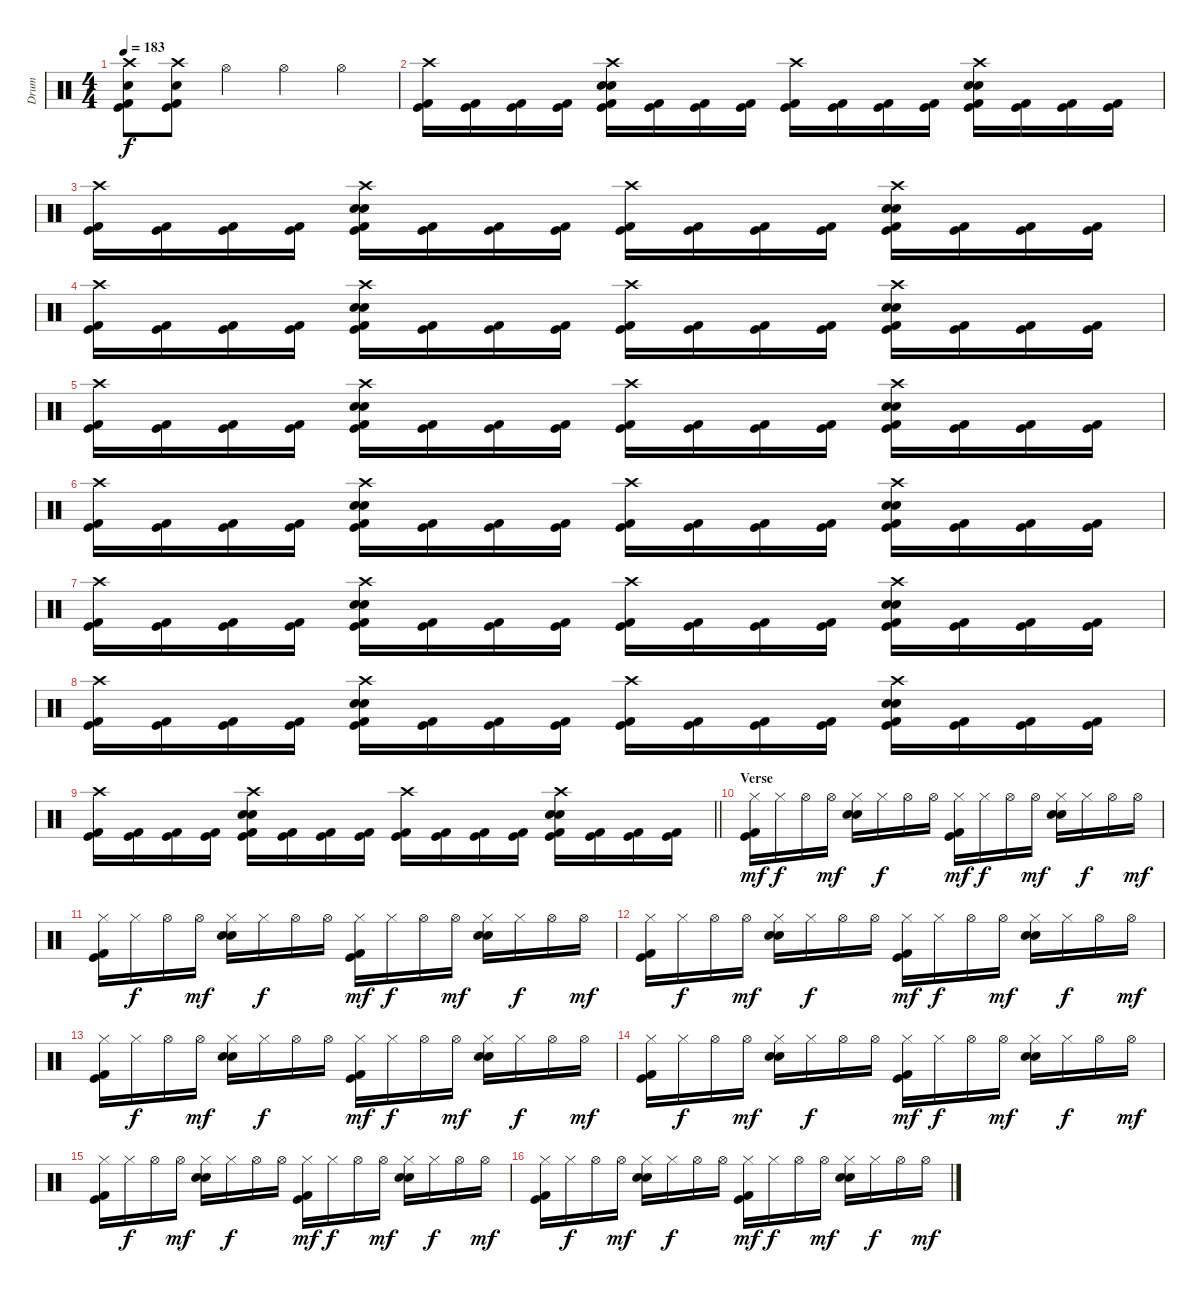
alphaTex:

\track ("Drum" "Drum") {instrument percussion}
\staff {score}
\articulation defaults
\ts (4 4)
\tempo 183
\clef neutral
\ks c
("Crash high (hit)" "Electric Snare (hit)" "Kick (hit) 2" "Kick (hit)").8{dy f} ("Crash high (hit)" "Electric Snare (hit)" "Kick (hit) 2" "Kick (hit)").8 "Hi-Hat (open)".4 "Hi-Hat (open)".4 "Hi-Hat (open)".4 |
("Crash high (hit)" "Kick (hit)" "Kick (hit) 2").16 ("Kick (hit)" "Kick (hit) 2").16 ("Kick (hit)" "Kick (hit) 2").16 ("Kick (hit)" "Kick (hit) 2").16 ("Crash high (hit)" "Electric Snare (hit)" "Electric Snare (hit)" "Kick (hit)" "Kick (hit) 2").16 ("Kick (hit)" "Kick (hit) 2").16 ("Kick (hit)" "Kick (hit) 2").16 ("Kick (hit)" "Kick (hit) 2").16 ("Crash high (hit)" "Kick (hit)" "Kick (hit) 2").16 ("Kick (hit)" "Kick (hit) 2").16 ("Kick (hit)" "Kick (hit) 2").16 ("Kick (hit)" "Kick (hit) 2").16 ("Crash high (hit)" "Electric Snare (hit)" "Electric Snare (hit)" "Kick (hit)" "Kick (hit) 2").16 ("Kick (hit)" "Kick (hit) 2").16 ("Kick (hit)" "Kick (hit) 2").16 ("Kick (hit)" "Kick (hit) 2").16 |
("Crash high (hit)" "Kick (hit)" "Kick (hit) 2").16 ("Kick (hit)" "Kick (hit) 2").16 ("Kick (hit)" "Kick (hit) 2").16 ("Kick (hit)" "Kick (hit) 2").16 ("Crash high (hit)" "Electric Snare (hit)" "Electric Snare (hit)" "Kick (hit)" "Kick (hit) 2").16 ("Kick (hit)" "Kick (hit) 2").16 ("Kick (hit)" "Kick (hit) 2").16 ("Kick (hit)" "Kick (hit) 2").16 ("Crash high (hit)" "Kick (hit)" "Kick (hit) 2").16 ("Kick (hit)" "Kick (hit) 2").16 ("Kick (hit)" "Kick (hit) 2").16 ("Kick (hit)" "Kick (hit) 2").16 ("Crash high (hit)" "Electric Snare (hit)" "Electric Snare (hit)" "Kick (hit)" "Kick (hit) 2").16 ("Kick (hit)" "Kick (hit) 2").16 ("Kick (hit)" "Kick (hit) 2").16 ("Kick (hit)" "Kick (hit) 2").16 |
("Crash high (hit)" "Kick (hit)" "Kick (hit) 2").16 ("Kick (hit)" "Kick (hit) 2").16 ("Kick (hit)" "Kick (hit) 2").16 ("Kick (hit)" "Kick (hit) 2").16 ("Crash high (hit)" "Electric Snare (hit)" "Electric Snare (hit)" "Kick (hit)" "Kick (hit) 2").16 ("Kick (hit)" "Kick (hit) 2").16 ("Kick (hit)" "Kick (hit) 2").16 ("Kick (hit)" "Kick (hit) 2").16 ("Crash high (hit)" "Kick (hit)" "Kick (hit) 2").16 ("Kick (hit)" "Kick (hit) 2").16 ("Kick (hit)" "Kick (hit) 2").16 ("Kick (hit)" "Kick (hit) 2").16 ("Crash high (hit)" "Electric Snare (hit)" "Electric Snare (hit)" "Kick (hit)" "Kick (hit) 2").16 ("Kick (hit)" "Kick (hit) 2").16 ("Kick (hit)" "Kick (hit) 2").16 ("Kick (hit)" "Kick (hit) 2").16 |
("Crash high (hit)" "Kick (hit)" "Kick (hit) 2").16 ("Kick (hit)" "Kick (hit) 2").16 ("Kick (hit)" "Kick (hit) 2").16 ("Kick (hit)" "Kick (hit) 2").16 ("Crash high (hit)" "Electric Snare (hit)" "Electric Snare (hit)" "Kick (hit)" "Kick (hit) 2").16 ("Kick (hit)" "Kick (hit) 2").16 ("Kick (hit)" "Kick (hit) 2").16 ("Kick (hit)" "Kick (hit) 2").16 ("Crash high (hit)" "Kick (hit)" "Kick (hit) 2").16 ("Kick (hit)" "Kick (hit) 2").16 ("Kick (hit)" "Kick (hit) 2").16 ("Kick (hit)" "Kick (hit) 2").16 ("Crash high (hit)" "Electric Snare (hit)" "Electric Snare (hit)" "Kick (hit)" "Kick (hit) 2").16 ("Kick (hit)" "Kick (hit) 2").16 ("Kick (hit)" "Kick (hit) 2").16 ("Kick (hit)" "Kick (hit) 2").16 |
("Crash high (hit)" "Kick (hit)" "Kick (hit) 2").16 ("Kick (hit)" "Kick (hit) 2").16 ("Kick (hit)" "Kick (hit) 2").16 ("Kick (hit)" "Kick (hit) 2").16 ("Crash high (hit)" "Electric Snare (hit)" "Electric Snare (hit)" "Kick (hit)" "Kick (hit) 2").16 ("Kick (hit)" "Kick (hit) 2").16 ("Kick (hit)" "Kick (hit) 2").16 ("Kick (hit)" "Kick (hit) 2").16 ("Crash high (hit)" "Kick (hit)" "Kick (hit) 2").16 ("Kick (hit)" "Kick (hit) 2").16 ("Kick (hit)" "Kick (hit) 2").16 ("Kick (hit)" "Kick (hit) 2").16 ("Crash high (hit)" "Electric Snare (hit)" "Electric Snare (hit)" "Kick (hit)" "Kick (hit) 2").16 ("Kick (hit)" "Kick (hit) 2").16 ("Kick (hit)" "Kick (hit) 2").16 ("Kick (hit)" "Kick (hit) 2").16 |
("Crash high (hit)" "Kick (hit)" "Kick (hit) 2").16 ("Kick (hit)" "Kick (hit) 2").16 ("Kick (hit)" "Kick (hit) 2").16 ("Kick (hit)" "Kick (hit) 2").16 ("Crash high (hit)" "Electric Snare (hit)" "Electric Snare (hit)" "Kick (hit)" "Kick (hit) 2").16 ("Kick (hit)" "Kick (hit) 2").16 ("Kick (hit)" "Kick (hit) 2").16 ("Kick (hit)" "Kick (hit) 2").16 ("Crash high (hit)" "Kick (hit)" "Kick (hit) 2").16 ("Kick (hit)" "Kick (hit) 2").16 ("Kick (hit)" "Kick (hit) 2").16 ("Kick (hit)" "Kick (hit) 2").16 ("Crash high (hit)" "Electric Snare (hit)" "Electric Snare (hit)" "Kick (hit)" "Kick (hit) 2").16 ("Kick (hit)" "Kick (hit) 2").16 ("Kick (hit)" "Kick (hit) 2").16 ("Kick (hit)" "Kick (hit) 2").16 |
("Crash high (hit)" "Kick (hit)" "Kick (hit) 2").16 ("Kick (hit)" "Kick (hit) 2").16 ("Kick (hit)" "Kick (hit) 2").16 ("Kick (hit)" "Kick (hit) 2").16 ("Crash high (hit)" "Electric Snare (hit)" "Electric Snare (hit)" "Kick (hit)" "Kick (hit) 2").16 ("Kick (hit)" "Kick (hit) 2").16 ("Kick (hit)" "Kick (hit) 2").16 ("Kick (hit)" "Kick (hit) 2").16 ("Crash high (hit)" "Kick (hit)" "Kick (hit) 2").16 ("Kick (hit)" "Kick (hit) 2").16 ("Kick (hit)" "Kick (hit) 2").16 ("Kick (hit)" "Kick (hit) 2").16 ("Crash high (hit)" "Electric Snare (hit)" "Electric Snare (hit)" "Kick (hit)" "Kick (hit) 2").16 ("Kick (hit)" "Kick (hit) 2").16 ("Kick (hit)" "Kick (hit) 2").16 ("Kick (hit)" "Kick (hit) 2").16 |
\barLineRight lightlight
("Crash high (hit)" "Kick (hit)" "Kick (hit) 2").16 ("Kick (hit)" "Kick (hit) 2").16 ("Kick (hit)" "Kick (hit) 2").16 ("Kick (hit)" "Kick (hit) 2").16 ("Crash high (hit)" "Electric Snare (hit)" "Electric Snare (hit)" "Kick (hit)" "Kick (hit) 2").16 ("Kick (hit)" "Kick (hit) 2").16 ("Kick (hit)" "Kick (hit) 2").16 ("Kick (hit)" "Kick (hit) 2").16 ("Crash high (hit)" "Kick (hit)" "Kick (hit) 2").16 ("Kick (hit)" "Kick (hit) 2").16 ("Kick (hit)" "Kick (hit) 2").16 ("Kick (hit)" "Kick (hit) 2").16 ("Crash high (hit)" "Electric Snare (hit)" "Electric Snare (hit)" "Kick (hit)" "Kick (hit) 2").16 ("Kick (hit)" "Kick (hit) 2").16 ("Kick (hit)" "Kick (hit) 2").16 ("Kick (hit)" "Kick (hit) 2").16 |
\section ("" "Verse")
("Hi-Hat (closed)" "Kick (hit) 2" "Kick (hit)").16{dy mf} "Hi-Hat (closed)".16{dy f} "Hi-Hat (open)".16 "Hi-Hat (open)".16{dy mf} ("Hi-Hat (closed)" "Electric Snare (hit)" "Electric Snare (hit)").16 "Hi-Hat (closed)".16{dy f} "Hi-Hat (open)".16 "Hi-Hat (open)".16 ("Hi-Hat (closed)" "Kick (hit) 2" "Kick (hit)").16{dy mf} "Hi-Hat (closed)".16{dy f} "Hi-Hat (open)".16 "Hi-Hat (open)".16{dy mf} ("Hi-Hat (closed)" "Electric Snare (hit)" "Electric Snare (hit)").16 "Hi-Hat (closed)".16{dy f} "Hi-Hat (open)".16 "Hi-Hat (open)".16{dy mf} |
("Hi-Hat (closed)" "Kick (hit) 2" "Kick (hit)").16 "Hi-Hat (closed)".16{dy f} "Hi-Hat (open)".16 "Hi-Hat (open)".16{dy mf} ("Hi-Hat (closed)" "Electric Snare (hit)" "Electric Snare (hit)").16 "Hi-Hat (closed)".16{dy f} "Hi-Hat (open)".16 "Hi-Hat (open)".16 ("Hi-Hat (closed)" "Kick (hit) 2" "Kick (hit)").16{dy mf} "Hi-Hat (closed)".16{dy f} "Hi-Hat (open)".16 "Hi-Hat (open)".16{dy mf} ("Hi-Hat (closed)" "Electric Snare (hit)" "Electric Snare (hit)").16 "Hi-Hat (closed)".16{dy f} "Hi-Hat (open)".16 "Hi-Hat (open)".16{dy mf} |
("Hi-Hat (closed)" "Kick (hit) 2" "Kick (hit)").16 "Hi-Hat (closed)".16{dy f} "Hi-Hat (open)".16 "Hi-Hat (open)".16{dy mf} ("Hi-Hat (closed)" "Electric Snare (hit)" "Electric Snare (hit)").16 "Hi-Hat (closed)".16{dy f} "Hi-Hat (open)".16 "Hi-Hat (open)".16 ("Hi-Hat (closed)" "Kick (hit) 2" "Kick (hit)").16{dy mf} "Hi-Hat (closed)".16{dy f} "Hi-Hat (open)".16 "Hi-Hat (open)".16{dy mf} ("Hi-Hat (closed)" "Electric Snare (hit)" "Electric Snare (hit)").16 "Hi-Hat (closed)".16{dy f} "Hi-Hat (open)".16 "Hi-Hat (open)".16{dy mf} |
("Hi-Hat (closed)" "Kick (hit) 2" "Kick (hit)").16 "Hi-Hat (closed)".16{dy f} "Hi-Hat (open)".16 "Hi-Hat (open)".16{dy mf} ("Hi-Hat (closed)" "Electric Snare (hit)" "Electric Snare (hit)").16 "Hi-Hat (closed)".16{dy f} "Hi-Hat (open)".16 "Hi-Hat (open)".16 ("Hi-Hat (closed)" "Kick (hit) 2" "Kick (hit)").16{dy mf} "Hi-Hat (closed)".16{dy f} "Hi-Hat (open)".16 "Hi-Hat (open)".16{dy mf} ("Hi-Hat (closed)" "Electric Snare (hit)" "Electric Snare (hit)").16 "Hi-Hat (closed)".16{dy f} "Hi-Hat (open)".16 "Hi-Hat (open)".16{dy mf} |
("Hi-Hat (closed)" "Kick (hit) 2" "Kick (hit)").16 "Hi-Hat (closed)".16{dy f} "Hi-Hat (open)".16 "Hi-Hat (open)".16{dy mf} ("Hi-Hat (closed)" "Electric Snare (hit)" "Electric Snare (hit)").16 "Hi-Hat (closed)".16{dy f} "Hi-Hat (open)".16 "Hi-Hat (open)".16 ("Hi-Hat (closed)" "Kick (hit) 2" "Kick (hit)").16{dy mf} "Hi-Hat (closed)".16{dy f} "Hi-Hat (open)".16 "Hi-Hat (open)".16{dy mf} ("Hi-Hat (closed)" "Electric Snare (hit)" "Electric Snare (hit)").16 "Hi-Hat (closed)".16{dy f} "Hi-Hat (open)".16 "Hi-Hat (open)".16{dy mf} |
("Hi-Hat (closed)" "Kick (hit) 2" "Kick (hit)").16 "Hi-Hat (closed)".16{dy f} "Hi-Hat (open)".16 "Hi-Hat (open)".16{dy mf} ("Hi-Hat (closed)" "Electric Snare (hit)" "Electric Snare (hit)").16 "Hi-Hat (closed)".16{dy f} "Hi-Hat (open)".16 "Hi-Hat (open)".16 ("Hi-Hat (closed)" "Kick (hit) 2" "Kick (hit)").16{dy mf} "Hi-Hat (closed)".16{dy f} "Hi-Hat (open)".16 "Hi-Hat (open)".16{dy mf} ("Hi-Hat (closed)" "Electric Snare (hit)" "Electric Snare (hit)").16 "Hi-Hat (closed)".16{dy f} "Hi-Hat (open)".16 "Hi-Hat (open)".16{dy mf} |
("Hi-Hat (closed)" "Kick (hit) 2" "Kick (hit)").16 "Hi-Hat (closed)".16{dy f} "Hi-Hat (open)".16 "Hi-Hat (open)".16{dy mf} ("Hi-Hat (closed)" "Electric Snare (hit)" "Electric Snare (hit)").16 "Hi-Hat (closed)".16{dy f} "Hi-Hat (open)".16 "Hi-Hat (open)".16 ("Hi-Hat (closed)" "Kick (hit) 2" "Kick (hit)").16{dy mf} "Hi-Hat (closed)".16{dy f} "Hi-Hat (open)".16 "Hi-Hat (open)".16{dy mf} ("Hi-Hat (closed)" "Electric Snare (hit)" "Electric Snare (hit)").16 "Hi-Hat (closed)".16{dy f} "Hi-Hat (open)".16 "Hi-Hat (open)".16{dy mf}
